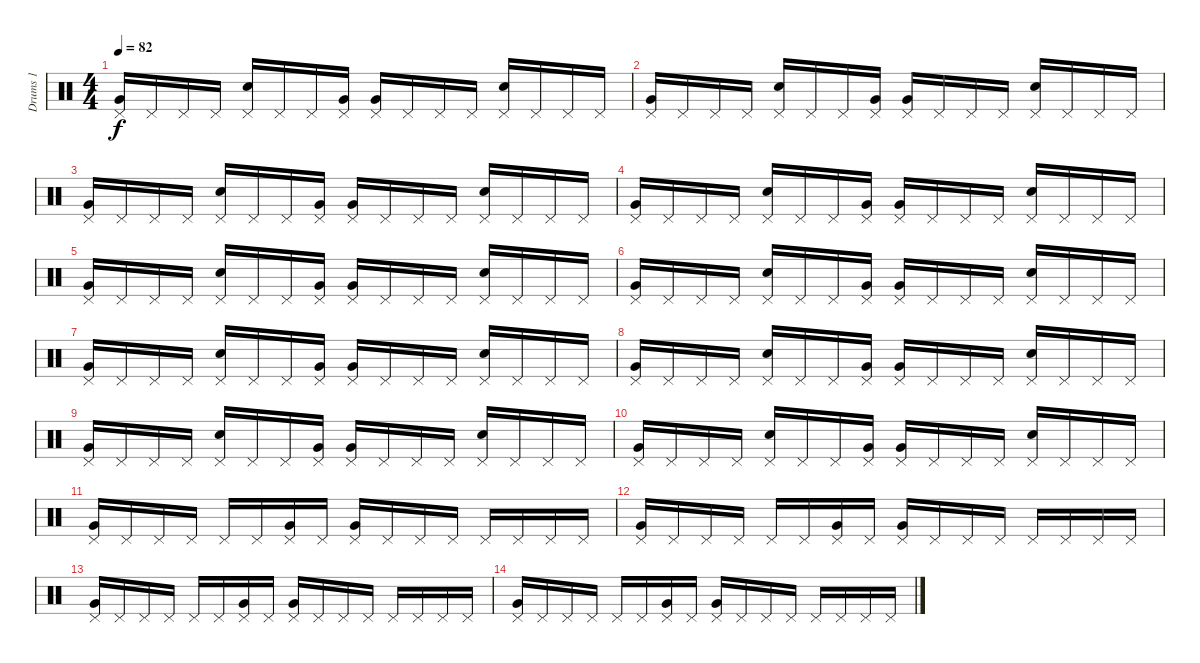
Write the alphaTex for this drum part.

\track ("Drums 1" "Drums 1") {instrument percussion}
\staff {score}
\articulation defaults
\ts (4 4)
\tempo 82
\clef neutral
\ks c
("Pedal Hi-Hat (hit)" "Very Low Tom (hit)").16{dy f} "Pedal Hi-Hat (hit)".16 "Pedal Hi-Hat (hit)".16 "Pedal Hi-Hat (hit)".16 ("Pedal Hi-Hat (hit)" "Electric Snare (hit)").16 "Pedal Hi-Hat (hit)".16 "Pedal Hi-Hat (hit)".16 ("Pedal Hi-Hat (hit)" "Very Low Tom (hit)").16 ("Pedal Hi-Hat (hit)" "Very Low Tom (hit)").16 "Pedal Hi-Hat (hit)".16 "Pedal Hi-Hat (hit)".16 "Pedal Hi-Hat (hit)".16 ("Pedal Hi-Hat (hit)" "Electric Snare (hit)").16 "Pedal Hi-Hat (hit)".16 "Pedal Hi-Hat (hit)".16 "Pedal Hi-Hat (hit)".16 |
("Pedal Hi-Hat (hit)" "Very Low Tom (hit)").16 "Pedal Hi-Hat (hit)".16 "Pedal Hi-Hat (hit)".16 "Pedal Hi-Hat (hit)".16 ("Pedal Hi-Hat (hit)" "Electric Snare (hit)").16 "Pedal Hi-Hat (hit)".16 "Pedal Hi-Hat (hit)".16 ("Pedal Hi-Hat (hit)" "Very Low Tom (hit)").16 ("Pedal Hi-Hat (hit)" "Very Low Tom (hit)").16 "Pedal Hi-Hat (hit)".16 "Pedal Hi-Hat (hit)".16 "Pedal Hi-Hat (hit)".16 ("Pedal Hi-Hat (hit)" "Electric Snare (hit)").16 "Pedal Hi-Hat (hit)".16 "Pedal Hi-Hat (hit)".16 "Pedal Hi-Hat (hit)".16 |
("Pedal Hi-Hat (hit)" "Very Low Tom (hit)").16 "Pedal Hi-Hat (hit)".16 "Pedal Hi-Hat (hit)".16 "Pedal Hi-Hat (hit)".16 ("Pedal Hi-Hat (hit)" "Electric Snare (hit)").16 "Pedal Hi-Hat (hit)".16 "Pedal Hi-Hat (hit)".16 ("Pedal Hi-Hat (hit)" "Very Low Tom (hit)").16 ("Pedal Hi-Hat (hit)" "Very Low Tom (hit)").16 "Pedal Hi-Hat (hit)".16 "Pedal Hi-Hat (hit)".16 "Pedal Hi-Hat (hit)".16 ("Pedal Hi-Hat (hit)" "Electric Snare (hit)").16 "Pedal Hi-Hat (hit)".16 "Pedal Hi-Hat (hit)".16 "Pedal Hi-Hat (hit)".16 |
("Pedal Hi-Hat (hit)" "Very Low Tom (hit)").16 "Pedal Hi-Hat (hit)".16 "Pedal Hi-Hat (hit)".16 "Pedal Hi-Hat (hit)".16 ("Pedal Hi-Hat (hit)" "Electric Snare (hit)").16 "Pedal Hi-Hat (hit)".16 "Pedal Hi-Hat (hit)".16 ("Pedal Hi-Hat (hit)" "Very Low Tom (hit)").16 ("Pedal Hi-Hat (hit)" "Very Low Tom (hit)").16 "Pedal Hi-Hat (hit)".16 "Pedal Hi-Hat (hit)".16 "Pedal Hi-Hat (hit)".16 ("Pedal Hi-Hat (hit)" "Electric Snare (hit)").16 "Pedal Hi-Hat (hit)".16 "Pedal Hi-Hat (hit)".16 "Pedal Hi-Hat (hit)".16 |
("Pedal Hi-Hat (hit)" "Very Low Tom (hit)").16 "Pedal Hi-Hat (hit)".16 "Pedal Hi-Hat (hit)".16 "Pedal Hi-Hat (hit)".16 ("Pedal Hi-Hat (hit)" "Electric Snare (hit)").16 "Pedal Hi-Hat (hit)".16 "Pedal Hi-Hat (hit)".16 ("Pedal Hi-Hat (hit)" "Very Low Tom (hit)").16 ("Pedal Hi-Hat (hit)" "Very Low Tom (hit)").16 "Pedal Hi-Hat (hit)".16 "Pedal Hi-Hat (hit)".16 "Pedal Hi-Hat (hit)".16 ("Pedal Hi-Hat (hit)" "Electric Snare (hit)").16 "Pedal Hi-Hat (hit)".16 "Pedal Hi-Hat (hit)".16 "Pedal Hi-Hat (hit)".16 |
("Pedal Hi-Hat (hit)" "Very Low Tom (hit)").16 "Pedal Hi-Hat (hit)".16 "Pedal Hi-Hat (hit)".16 "Pedal Hi-Hat (hit)".16 ("Pedal Hi-Hat (hit)" "Electric Snare (hit)").16 "Pedal Hi-Hat (hit)".16 "Pedal Hi-Hat (hit)".16 ("Pedal Hi-Hat (hit)" "Very Low Tom (hit)").16 ("Pedal Hi-Hat (hit)" "Very Low Tom (hit)").16 "Pedal Hi-Hat (hit)".16 "Pedal Hi-Hat (hit)".16 "Pedal Hi-Hat (hit)".16 ("Pedal Hi-Hat (hit)" "Electric Snare (hit)").16 "Pedal Hi-Hat (hit)".16 "Pedal Hi-Hat (hit)".16 "Pedal Hi-Hat (hit)".16 |
("Pedal Hi-Hat (hit)" "Very Low Tom (hit)").16 "Pedal Hi-Hat (hit)".16 "Pedal Hi-Hat (hit)".16 "Pedal Hi-Hat (hit)".16 ("Pedal Hi-Hat (hit)" "Electric Snare (hit)").16 "Pedal Hi-Hat (hit)".16 "Pedal Hi-Hat (hit)".16 ("Pedal Hi-Hat (hit)" "Very Low Tom (hit)").16 ("Pedal Hi-Hat (hit)" "Very Low Tom (hit)").16 "Pedal Hi-Hat (hit)".16 "Pedal Hi-Hat (hit)".16 "Pedal Hi-Hat (hit)".16 ("Pedal Hi-Hat (hit)" "Electric Snare (hit)").16 "Pedal Hi-Hat (hit)".16 "Pedal Hi-Hat (hit)".16 "Pedal Hi-Hat (hit)".16 |
("Pedal Hi-Hat (hit)" "Very Low Tom (hit)").16 "Pedal Hi-Hat (hit)".16 "Pedal Hi-Hat (hit)".16 "Pedal Hi-Hat (hit)".16 ("Pedal Hi-Hat (hit)" "Electric Snare (hit)").16 "Pedal Hi-Hat (hit)".16 "Pedal Hi-Hat (hit)".16 ("Pedal Hi-Hat (hit)" "Very Low Tom (hit)").16 ("Pedal Hi-Hat (hit)" "Very Low Tom (hit)").16 "Pedal Hi-Hat (hit)".16 "Pedal Hi-Hat (hit)".16 "Pedal Hi-Hat (hit)".16 ("Pedal Hi-Hat (hit)" "Electric Snare (hit)").16 "Pedal Hi-Hat (hit)".16 "Pedal Hi-Hat (hit)".16 "Pedal Hi-Hat (hit)".16 |
("Pedal Hi-Hat (hit)" "Very Low Tom (hit)").16 "Pedal Hi-Hat (hit)".16 "Pedal Hi-Hat (hit)".16 "Pedal Hi-Hat (hit)".16 ("Pedal Hi-Hat (hit)" "Electric Snare (hit)").16 "Pedal Hi-Hat (hit)".16 "Pedal Hi-Hat (hit)".16 ("Pedal Hi-Hat (hit)" "Very Low Tom (hit)").16 ("Pedal Hi-Hat (hit)" "Very Low Tom (hit)").16 "Pedal Hi-Hat (hit)".16 "Pedal Hi-Hat (hit)".16 "Pedal Hi-Hat (hit)".16 ("Pedal Hi-Hat (hit)" "Electric Snare (hit)").16 "Pedal Hi-Hat (hit)".16 "Pedal Hi-Hat (hit)".16 "Pedal Hi-Hat (hit)".16 |
("Pedal Hi-Hat (hit)" "Very Low Tom (hit)").16 "Pedal Hi-Hat (hit)".16 "Pedal Hi-Hat (hit)".16 "Pedal Hi-Hat (hit)".16 ("Pedal Hi-Hat (hit)" "Electric Snare (hit)").16 "Pedal Hi-Hat (hit)".16 "Pedal Hi-Hat (hit)".16 ("Pedal Hi-Hat (hit)" "Very Low Tom (hit)").16 ("Pedal Hi-Hat (hit)" "Very Low Tom (hit)").16 "Pedal Hi-Hat (hit)".16 "Pedal Hi-Hat (hit)".16 "Pedal Hi-Hat (hit)".16 ("Pedal Hi-Hat (hit)" "Electric Snare (hit)").16 "Pedal Hi-Hat (hit)".16 "Pedal Hi-Hat (hit)".16 "Pedal Hi-Hat (hit)".16 |
("Pedal Hi-Hat (hit)" "Very Low Tom (hit)").16 "Pedal Hi-Hat (hit)".16 "Pedal Hi-Hat (hit)".16 "Pedal Hi-Hat (hit)".16 "Pedal Hi-Hat (hit)".16 "Pedal Hi-Hat (hit)".16 ("Pedal Hi-Hat (hit)" "Very Low Tom (hit)").16 "Pedal Hi-Hat (hit)".16 ("Pedal Hi-Hat (hit)" "Very Low Tom (hit)").16 "Pedal Hi-Hat (hit)".16 "Pedal Hi-Hat (hit)".16 "Pedal Hi-Hat (hit)".16 "Pedal Hi-Hat (hit)".16 "Pedal Hi-Hat (hit)".16 "Pedal Hi-Hat (hit)".16 "Pedal Hi-Hat (hit)".16 |
("Pedal Hi-Hat (hit)" "Very Low Tom (hit)").16 "Pedal Hi-Hat (hit)".16 "Pedal Hi-Hat (hit)".16 "Pedal Hi-Hat (hit)".16 "Pedal Hi-Hat (hit)".16 "Pedal Hi-Hat (hit)".16 ("Pedal Hi-Hat (hit)" "Very Low Tom (hit)").16 "Pedal Hi-Hat (hit)".16 ("Pedal Hi-Hat (hit)" "Very Low Tom (hit)").16 "Pedal Hi-Hat (hit)".16 "Pedal Hi-Hat (hit)".16 "Pedal Hi-Hat (hit)".16 "Pedal Hi-Hat (hit)".16 "Pedal Hi-Hat (hit)".16 "Pedal Hi-Hat (hit)".16 "Pedal Hi-Hat (hit)".16 |
("Pedal Hi-Hat (hit)" "Very Low Tom (hit)").16 "Pedal Hi-Hat (hit)".16 "Pedal Hi-Hat (hit)".16 "Pedal Hi-Hat (hit)".16 "Pedal Hi-Hat (hit)".16 "Pedal Hi-Hat (hit)".16 ("Pedal Hi-Hat (hit)" "Very Low Tom (hit)").16 "Pedal Hi-Hat (hit)".16 ("Pedal Hi-Hat (hit)" "Very Low Tom (hit)").16 "Pedal Hi-Hat (hit)".16 "Pedal Hi-Hat (hit)".16 "Pedal Hi-Hat (hit)".16 "Pedal Hi-Hat (hit)".16 "Pedal Hi-Hat (hit)".16 "Pedal Hi-Hat (hit)".16 "Pedal Hi-Hat (hit)".16 |
("Pedal Hi-Hat (hit)" "Very Low Tom (hit)").16 "Pedal Hi-Hat (hit)".16 "Pedal Hi-Hat (hit)".16 "Pedal Hi-Hat (hit)".16 "Pedal Hi-Hat (hit)".16 "Pedal Hi-Hat (hit)".16 ("Pedal Hi-Hat (hit)" "Very Low Tom (hit)").16 "Pedal Hi-Hat (hit)".16 ("Pedal Hi-Hat (hit)" "Very Low Tom (hit)").16 "Pedal Hi-Hat (hit)".16 "Pedal Hi-Hat (hit)".16 "Pedal Hi-Hat (hit)".16 "Pedal Hi-Hat (hit)".16 "Pedal Hi-Hat (hit)".16 "Pedal Hi-Hat (hit)".16 "Pedal Hi-Hat (hit)".16
